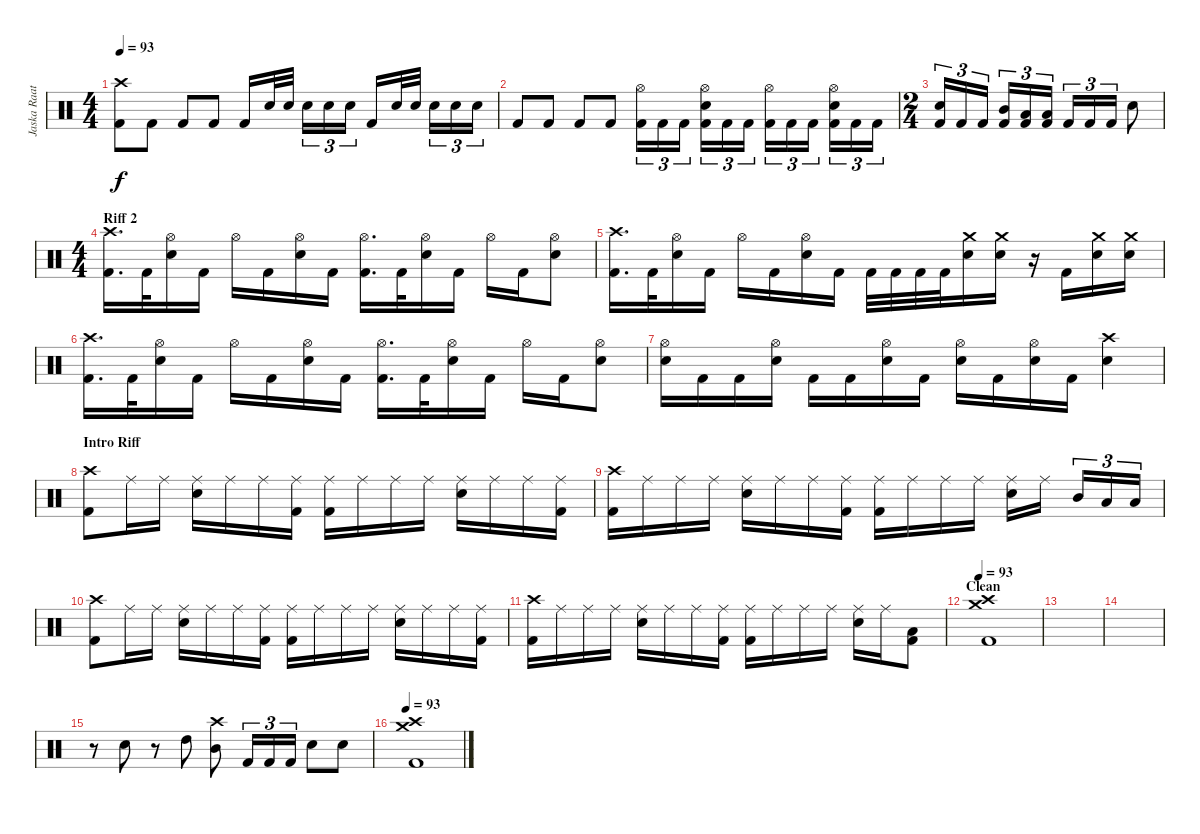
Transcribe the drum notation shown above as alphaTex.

\track ("Jaska Raatikainen" "Jaska Raat") {instrument percussion}
\staff {score}
\articulation defaults
\ts (4 4)
\tempo 93
\clef neutral
\ks c
("Crash high (hit)" "Kick (hit) 2").8{dy f} "Kick (hit) 2".8 "Kick (hit) 2".8 "Kick (hit) 2".8 "Kick (hit) 2".16 "Snare (hit) 2".32 "Snare (hit) 2".32 "Snare (hit) 2".16{tu (3 2)} "Snare (hit) 2".16{tu (3 2)} "Snare (hit) 2".16{tu (3 2)} "Kick (hit) 2".16 "Snare (hit) 2".32 "Snare (hit) 2".32 "Snare (hit) 2".16{tu (3 2)} "Snare (hit) 2".16{tu (3 2)} "Snare (hit) 2".16{tu (3 2)} |
"Kick (hit) 2".8 "Kick (hit) 2".8 "Kick (hit) 2".8 "Kick (hit) 2".8 ("Hi-Hat (open)" "Kick (hit) 2").16{tu (3 2)} "Kick (hit) 2".16{tu (3 2)} "Kick (hit) 2".16{tu (3 2)} ("Hi-Hat (open)" "Snare (hit) 2" "Kick (hit) 2").16{tu (3 2)} "Kick (hit) 2".16{tu (3 2)} "Kick (hit) 2".16{tu (3 2)} ("Hi-Hat (open)" "Kick (hit) 2").16{tu (3 2)} "Kick (hit) 2".16{tu (3 2)} "Kick (hit) 2".16{tu (3 2)} ("Hi-Hat (open)" "Snare (hit) 2" "Kick (hit) 2").16{tu (3 2)} "Kick (hit) 2".16{tu (3 2)} "Kick (hit) 2".16{tu (3 2)} |
\ts (2 4)
("Snare (hit) 2" "Kick (hit) 2").16{tu (3 2)} "Kick (hit) 2".16{tu (3 2)} "Kick (hit) 2".16{tu (3 2)} ("Mid Tom (hit)" "Kick (hit) 2").16{tu (3 2)} ("Low Tom (hit)" "Kick (hit) 2").16{tu (3 2)} ("Low Tom (hit)" "Kick (hit) 2").16{tu (3 2)} "Kick (hit) 2".16{tu (3 2)} "Kick (hit) 2".16{tu (3 2)} "Kick (hit) 2".16{tu (3 2)} "Snare (hit) 2".8 |
\ts (4 4)
\section ("" "Riff 2")
("Crash high (hit)" "Kick (hit) 2").16{d} "Kick (hit) 2".32 ("Hi-Hat (open)" "Snare (hit) 2").16 "Kick (hit) 2".16 "Hi-Hat (open)".16 "Kick (hit) 2".16 ("Hi-Hat (open)" "Snare (hit) 2").16 "Kick (hit) 2".16 ("Hi-Hat (open)" "Kick (hit) 2").16{d} "Kick (hit) 2".32 ("Hi-Hat (open)" "Snare (hit) 2").16 "Kick (hit) 2".16 "Hi-Hat (open)".16 "Kick (hit) 2".16 ("Hi-Hat (open)" "Snare (hit) 2").8 |
("Crash high (hit)" "Kick (hit) 2").16{d} "Kick (hit) 2".32 ("Hi-Hat (open)" "Snare (hit) 2").16 "Kick (hit) 2".16 "Hi-Hat (open)".16 "Kick (hit) 2".16 ("Hi-Hat (open)" "Snare (hit) 2").16 "Kick (hit) 2".16 "Kick (hit) 2".32 "Kick (hit) 2".32 "Kick (hit) 2".32 "Kick (hit) 2".32 ("Crash medium (hit)" "Snare (hit) 2").16 ("Crash medium (hit)" "Snare (hit) 2").16 r.16 "Kick (hit) 2".16 ("Crash medium (hit)" "Snare (hit) 2").16 ("Crash medium (hit)" "Snare (hit) 2").16 |
("Crash high (hit)" "Kick (hit) 2").16{d} "Kick (hit) 2".32 ("Hi-Hat (open)" "Snare (hit) 2").16 "Kick (hit) 2".16 "Hi-Hat (open)".16 "Kick (hit) 2".16 ("Hi-Hat (open)" "Snare (hit) 2").16 "Kick (hit) 2".16 ("Hi-Hat (open)" "Kick (hit) 2").16{d} "Kick (hit) 2".32 ("Hi-Hat (open)" "Snare (hit) 2").16 "Kick (hit) 2".16 "Hi-Hat (open)".16 "Kick (hit) 2".16 ("Hi-Hat (open)" "Snare (hit) 2").8 |
("Hi-Hat (open)" "Snare (hit) 2").16 "Kick (hit) 2".16 "Kick (hit) 2".16 ("Hi-Hat (open)" "Snare (hit) 2").16 "Kick (hit) 2".16 "Kick (hit) 2".16 ("Hi-Hat (open)" "Snare (hit) 2").16 "Kick (hit) 2".16 ("Hi-Hat (open)" "Snare (hit) 2").16 "Kick (hit) 2".16 ("Hi-Hat (open)" "Snare (hit) 2").16 "Kick (hit) 2".16 ("Crash high (hit)" "Snare (hit) 2").4 |
\section ("" "Intro Riff")
("Crash high (hit)" "Kick (hit) 2").8 "Ride (middle)".16 "Ride (middle)".16 ("Ride (middle)" "Snare (hit) 2").16 "Ride (middle)".16 "Ride (middle)".16 ("Ride (middle)" "Kick (hit) 2").16 ("Ride (middle)" "Kick (hit) 2").16 "Ride (middle)".16 "Ride (middle)".16 "Ride (middle)".16 ("Ride (middle)" "Snare (hit) 2").16 "Ride (middle)".16 "Ride (middle)".16 ("Ride (middle)" "Kick (hit) 2").16 |
("Crash high (hit)" "Kick (hit) 2").16 "Ride (middle)".16 "Ride (middle)".16 "Ride (middle)".16 ("Ride (middle)" "Snare (hit) 2").16 "Ride (middle)".16 "Ride (middle)".16 ("Ride (middle)" "Kick (hit) 2").16 ("Ride (middle)" "Kick (hit) 2").16 "Ride (middle)".16 "Ride (middle)".16 "Ride (middle)".16 ("Ride (middle)" "Snare (hit) 2").16 "Ride (middle)".16 "Mid Tom (hit)".16{tu (3 2)} "Low Tom (hit)".16{tu (3 2)} "Low Tom (hit)".16{tu (3 2)} |
("Crash high (hit)" "Kick (hit) 2").8 "Ride (middle)".16 "Ride (middle)".16 ("Ride (middle)" "Snare (hit) 2").16 "Ride (middle)".16 "Ride (middle)".16 ("Ride (middle)" "Kick (hit) 2").16 ("Ride (middle)" "Kick (hit) 2").16 "Ride (middle)".16 "Ride (middle)".16 "Ride (middle)".16 ("Ride (middle)" "Snare (hit) 2").16 "Ride (middle)".16 "Ride (middle)".16 ("Ride (middle)" "Kick (hit) 2").16 |
("Crash high (hit)" "Kick (hit) 2").16 "Ride (middle)".16 "Ride (middle)".16 "Ride (middle)".16 ("Ride (middle)" "Snare (hit) 2").16 "Ride (middle)".16 "Ride (middle)".16 ("Ride (middle)" "Kick (hit) 2").16 ("Ride (middle)" "Kick (hit) 2").16 "Ride (middle)".16 "Ride (middle)".16 "Ride (middle)".16 ("Ride (middle)" "Snare (hit) 2").16 "Ride (middle)".16 ("Low Tom (hit)" "Kick (hit) 2").8 |
\section ("" "Clean")
\tempo 93
("Crash high (hit)" "Crash medium (hit)" "Kick (hit) 2").1 |
|
|
r.8 "Snare (hit) 2".8 r.8 "High Tom (hit)".8 ("Crash high (hit)" "Mid Tom (hit)").8 "Kick (hit) 2".16{tu (3 2)} "Kick (hit) 2".16{tu (3 2)} "Kick (hit) 2".16{tu (3 2)} "Snare (hit) 2".8 "Snare (hit) 2".8 |
\tempo 93
("Crash high (hit)" "Crash medium (hit)" "Kick (hit) 2").1
